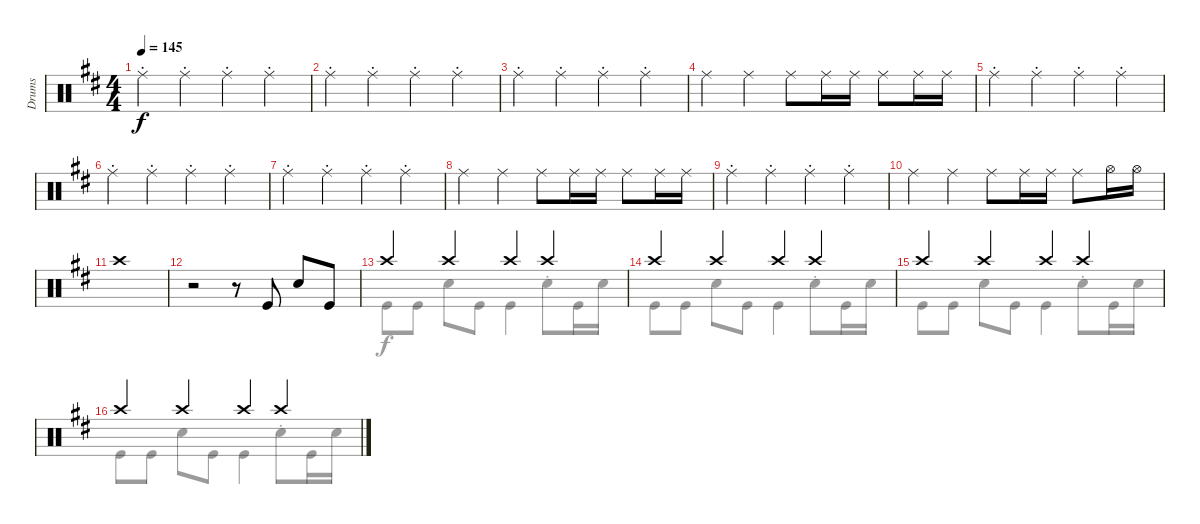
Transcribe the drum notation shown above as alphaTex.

\track ("Drums" "Drums") {instrument percussion}
\staff {score}
\articulation defaults
\voice
\ts (4 4)
\tempo 145
\clef neutral
\ks d "Ride (middle)"{st}.4{dy f} "Ride (middle)"{st}.4 "Ride (middle)"{st}.4 "Ride (middle)"{st}.4
|
"Ride (middle)"{st}.4 "Ride (middle)"{st}.4 "Ride (middle)"{st}.4 "Ride (middle)"{st}.4 |
"Ride (middle)"{st}.4 "Ride (middle)"{st}.4 "Ride (middle)"{st}.4 "Ride (middle)"{st}.4 |
"Ride (middle)".4 "Ride (middle)".4 "Ride (middle)".8 "Ride (middle)".16 "Ride (middle)".16 "Ride (middle)".8 "Ride (middle)".16 "Ride (middle)".16 |
"Ride (middle)"{st}.4 "Ride (middle)"{st}.4 "Ride (middle)"{st}.4 "Ride (middle)"{st}.4 |
"Ride (middle)"{st}.4 "Ride (middle)"{st}.4 "Ride (middle)"{st}.4 "Ride (middle)"{st}.4 |
"Ride (middle)"{st}.4 "Ride (middle)"{st}.4 "Ride (middle)"{st}.4 "Ride (middle)"{st}.4 |
"Ride (middle)".4 "Ride (middle)".4 "Ride (middle)".8 "Ride (middle)".16 "Ride (middle)".16 "Ride (middle)".8 "Ride (middle)".16 "Ride (middle)".16 |
"Ride (middle)"{st}.4 "Ride (middle)"{st}.4 "Ride (middle)"{st}.4 "Ride (middle)"{st}.4 |
"Ride (middle)".4 "Ride (middle)".4 "Ride (middle)".8 "Ride (middle)".16 "Ride (middle)".16 "Ride (middle)".8 "Hi-Hat (open)".16 "Hi-Hat (open)".16 |
"Crash high (hit)".1 |
r.2 r.8 "Kick (hit)".8 "Electric Snare (hit)".8 "Kick (hit)".8 |
"Crash high (hit)".4 "Crash high (hit)".4 "Crash high (hit)".4 "Crash high (hit)".4 |
"Crash high (hit)".4 "Crash high (hit)".4 "Crash high (hit)".4 "Crash high (hit)".4 |
"Crash high (hit)".4 "Crash high (hit)".4 "Crash high (hit)".4 "Crash high (hit)".4 |
"Crash high (hit)".4 "Crash high (hit)".4 "Crash high (hit)".4 "Crash high (hit)".4
\voice
\clef neutral
\ottava regular
\simile none
\ks d
|
|
|
|
|
|
|
|
|
|
|
|
"Kick (hit)".8 "Kick (hit)".8 "Electric Snare (hit)".8 "Kick (hit)".8 "Kick (hit)".4 "Electric Snare (hit)"{st}.8 "Kick (hit)".16 "Electric Snare (hit)".16 |
"Kick (hit)".8 "Kick (hit)".8 "Electric Snare (hit)".8 "Kick (hit)".8 "Kick (hit)".4 "Electric Snare (hit)"{st}.8 "Kick (hit)".16 "Electric Snare (hit)".16 |
"Kick (hit)".8 "Kick (hit)".8 "Electric Snare (hit)".8 "Kick (hit)".8 "Kick (hit)".4 "Electric Snare (hit)"{st}.8 "Kick (hit)".16 "Electric Snare (hit)".16 |
"Kick (hit)".8 "Kick (hit)".8 "Electric Snare (hit)".8 "Kick (hit)".8 "Kick (hit)".4 "Electric Snare (hit)"{st}.8 "Kick (hit)".16 "Electric Snare (hit)".16
